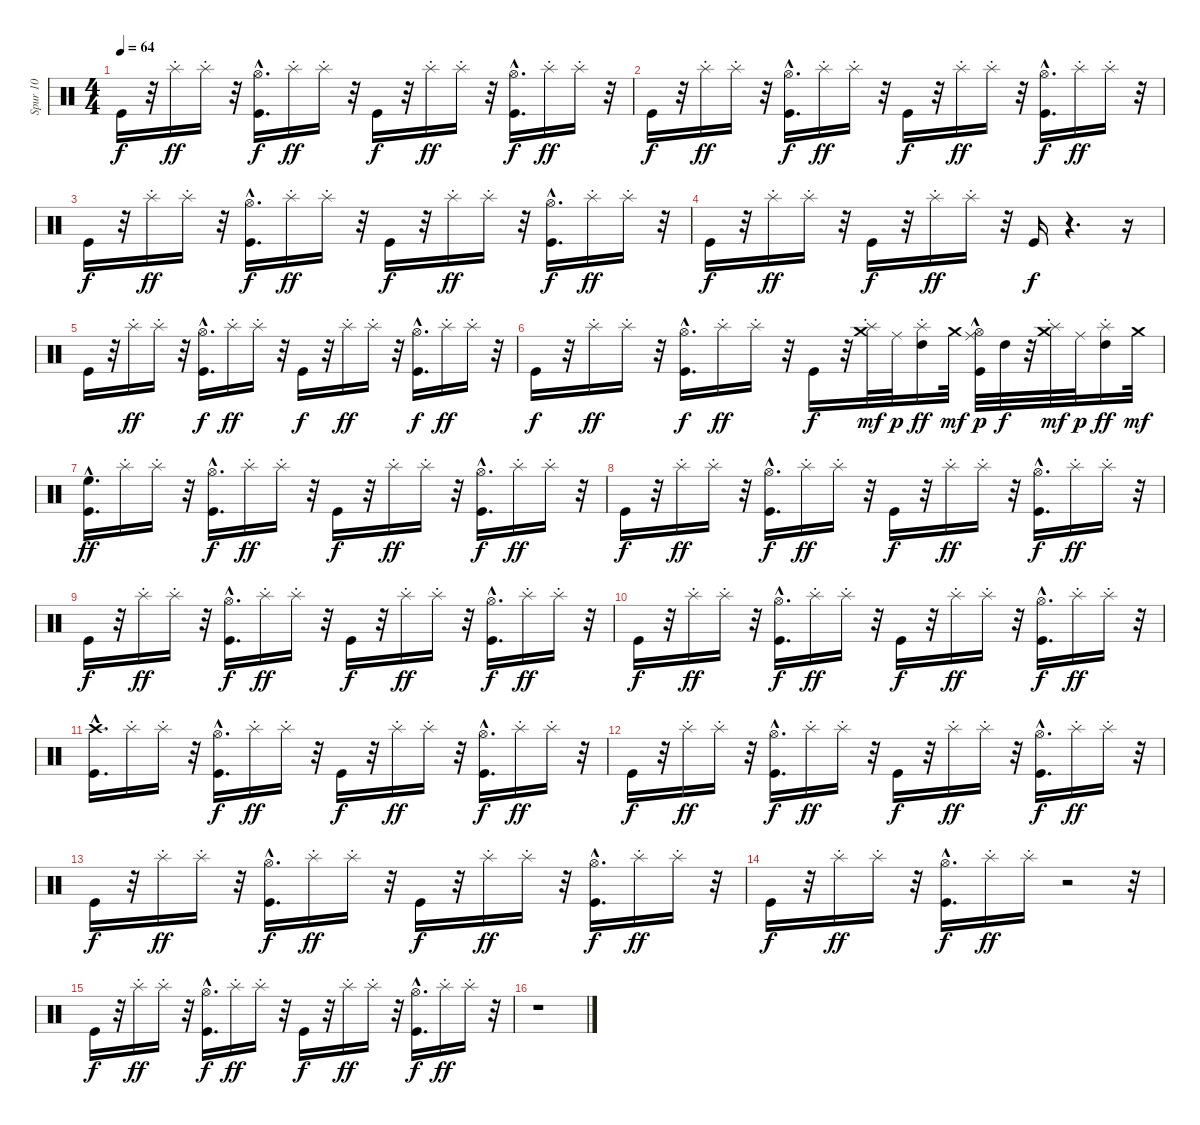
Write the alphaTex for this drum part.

\track ("Spur 10" "Spur 10") {instrument percussion}
\staff {score}
\articulation defaults
\ts (4 4)
\tempo 64
\clef neutral
\ks c "Kick (hit)".16{dy f}
r.32 "Splash (choke)".16{dy ff} "Splash (choke)".16 r.32 ("Kick (hit)" "Hi-Hat (open)"{hac}).16{d dy f} "Splash (choke)".16{dy ff} "Splash (choke)".16 r.32 "Kick (hit)".16{dy f} r.32 "Splash (choke)".16{dy ff} "Splash (choke)".16 r.32 ("Kick (hit)" "Hi-Hat (open)"{hac}).16{d dy f} "Splash (choke)".16{dy ff} "Splash (choke)".16 r.32 |
"Kick (hit)".16{dy f} r.32 "Splash (choke)".16{dy ff} "Splash (choke)".16 r.32 ("Kick (hit)" "Hi-Hat (open)"{hac}).16{d dy f} "Splash (choke)".16{dy ff} "Splash (choke)".16 r.32 "Kick (hit)".16{dy f} r.32 "Splash (choke)".16{dy ff} "Splash (choke)".16 r.32 ("Kick (hit)" "Hi-Hat (open)"{hac}).16{d dy f} "Splash (choke)".16{dy ff} "Splash (choke)".16 r.32 |
"Kick (hit)".16{dy f} r.32 "Splash (choke)".16{dy ff} "Splash (choke)".16 r.32 ("Kick (hit)" "Hi-Hat (open)"{hac}).16{d dy f} "Splash (choke)".16{dy ff} "Splash (choke)".16 r.32 "Kick (hit)".16{dy f} r.32 "Splash (choke)".16{dy ff} "Splash (choke)".16 r.32 ("Kick (hit)" "Hi-Hat (open)"{hac}).16{d dy f} "Splash (choke)".16{dy ff} "Splash (choke)".16 r.32 |
"Kick (hit)".16{dy f} r.32 "Splash (choke)".16{dy ff} "Splash (choke)".16 r.32 "Kick (hit)".16{dy f} r.32 "Splash (choke)".16{dy ff} "Splash (choke)".16 r.32 "Kick (hit)".16{dy f} r.4{d} r.16 |
"Kick (hit)".16 r.32 "Splash (choke)".16{dy ff} "Splash (choke)".16 r.32 ("Kick (hit)" "Hi-Hat (open)"{hac}).16{d dy f} "Splash (choke)".16{dy ff} "Splash (choke)".16 r.32 "Kick (hit)".16{dy f} r.32 "Splash (choke)".16{dy ff} "Splash (choke)".16 r.32 ("Kick (hit)" "Hi-Hat (open)"{hac}).16{d dy f} "Splash (choke)".16{dy ff} "Splash (choke)".16 r.32 |
"Kick (hit)".16{dy f} r.32 "Splash (choke)".16{dy ff} "Splash (choke)".16 r.32 ("Kick (hit)" "Hi-Hat (open)"{hac}).16{d dy f} "Splash (choke)".16{dy ff} "Splash (choke)".16 r.32 "Kick (hit)".16{dy f} r.32 ("Splash (choke)" "Crash medium (hit)").32{dy mf} "Ride (middle)".32{dy p} ("Splash (choke)" "High Tom (hit)").16{dy ff} "Crash medium (hit)".32{dy mf} ("Kick (hit)" "Hi-Hat (open)"{hac} "Ride (middle)").32{dy p} "High Tom (hit)".32{dy f} r.32 ("Splash (choke)" "Crash medium (hit)").32{dy mf} "Ride (middle)".32{dy p} ("Splash (choke)" "High Tom (hit)").16{dy ff} "Crash medium (hit)".32{dy mf} |
("Kick (hit)" "High Floor Tom (hit)"{hac}).16{d dy ff} "Splash (choke)".16 "Splash (choke)".16 r.32 ("Kick (hit)" "Hi-Hat (open)"{hac}).16{d dy f} "Splash (choke)".16{dy ff} "Splash (choke)".16 r.32 "Kick (hit)".16{dy f} r.32 "Splash (choke)".16{dy ff} "Splash (choke)".16 r.32 ("Kick (hit)" "Hi-Hat (open)"{hac}).16{d dy f} "Splash (choke)".16{dy ff} "Splash (choke)".16 r.32 |
"Kick (hit)".16{dy f} r.32 "Splash (choke)".16{dy ff} "Splash (choke)".16 r.32 ("Kick (hit)" "Hi-Hat (open)"{hac}).16{d dy f} "Splash (choke)".16{dy ff} "Splash (choke)".16 r.32 "Kick (hit)".16{dy f} r.32 "Splash (choke)".16{dy ff} "Splash (choke)".16 r.32 ("Kick (hit)" "Hi-Hat (open)"{hac}).16{d dy f} "Splash (choke)".16{dy ff} "Splash (choke)".16 r.32 |
"Kick (hit)".16{dy f} r.32 "Splash (choke)".16{dy ff} "Splash (choke)".16 r.32 ("Kick (hit)" "Hi-Hat (open)"{hac}).16{d dy f} "Splash (choke)".16{dy ff} "Splash (choke)".16 r.32 "Kick (hit)".16{dy f} r.32 "Splash (choke)".16{dy ff} "Splash (choke)".16 r.32 ("Kick (hit)" "Hi-Hat (open)"{hac}).16{d dy f} "Splash (choke)".16{dy ff} "Splash (choke)".16 r.32 |
"Kick (hit)".16{dy f} r.32 "Splash (choke)".16{dy ff} "Splash (choke)".16 r.32 ("Kick (hit)" "Hi-Hat (open)"{hac}).16{d dy f} "Splash (choke)".16{dy ff} "Splash (choke)".16 r.32 "Kick (hit)".16{dy f} r.32 "Splash (choke)".16{dy ff} "Splash (choke)".16 r.32 ("Kick (hit)" "Hi-Hat (open)"{hac}).16{d dy f} "Splash (choke)".16{dy ff} "Splash (choke)".16 r.32 |
("Crash high (hit)"{hac} "Kick (hit)").16{d} "Splash (choke)".16 "Splash (choke)".16 r.32 ("Kick (hit)" "Hi-Hat (open)"{hac}).16{d dy f} "Splash (choke)".16{dy ff} "Splash (choke)".16 r.32 "Kick (hit)".16{dy f} r.32 "Splash (choke)".16{dy ff} "Splash (choke)".16 r.32 ("Kick (hit)" "Hi-Hat (open)"{hac}).16{d dy f} "Splash (choke)".16{dy ff} "Splash (choke)".16 r.32 |
"Kick (hit)".16{dy f} r.32 "Splash (choke)".16{dy ff} "Splash (choke)".16 r.32 ("Kick (hit)" "Hi-Hat (open)"{hac}).16{d dy f} "Splash (choke)".16{dy ff} "Splash (choke)".16 r.32 "Kick (hit)".16{dy f} r.32 "Splash (choke)".16{dy ff} "Splash (choke)".16 r.32 ("Kick (hit)" "Hi-Hat (open)"{hac}).16{d dy f} "Splash (choke)".16{dy ff} "Splash (choke)".16 r.32 |
"Kick (hit)".16{dy f} r.32 "Splash (choke)".16{dy ff} "Splash (choke)".16 r.32 ("Kick (hit)" "Hi-Hat (open)"{hac}).16{d dy f} "Splash (choke)".16{dy ff} "Splash (choke)".16 r.32 "Kick (hit)".16{dy f} r.32 "Splash (choke)".16{dy ff} "Splash (choke)".16 r.32 ("Kick (hit)" "Hi-Hat (open)"{hac}).16{d dy f} "Splash (choke)".16{dy ff} "Splash (choke)".16 r.32 |
"Kick (hit)".16{dy f} r.32 "Splash (choke)".16{dy ff} "Splash (choke)".16 r.32 ("Kick (hit)" "Hi-Hat (open)"{hac}).16{d dy f} "Splash (choke)".16{dy ff} "Splash (choke)".16 r.2 r.32 |
"Kick (hit)".16{dy f} r.32 "Splash (choke)".16{dy ff} "Splash (choke)".16 r.32 ("Kick (hit)" "Hi-Hat (open)"{hac}).16{d dy f} "Splash (choke)".16{dy ff} "Splash (choke)".16 r.32 "Kick (hit)".16{dy f} r.32 "Splash (choke)".16{dy ff} "Splash (choke)".16 r.32 ("Kick (hit)" "Hi-Hat (open)"{hac}).16{d dy f} "Splash (choke)".16{dy ff} "Splash (choke)".16 r.32 |
r.1
